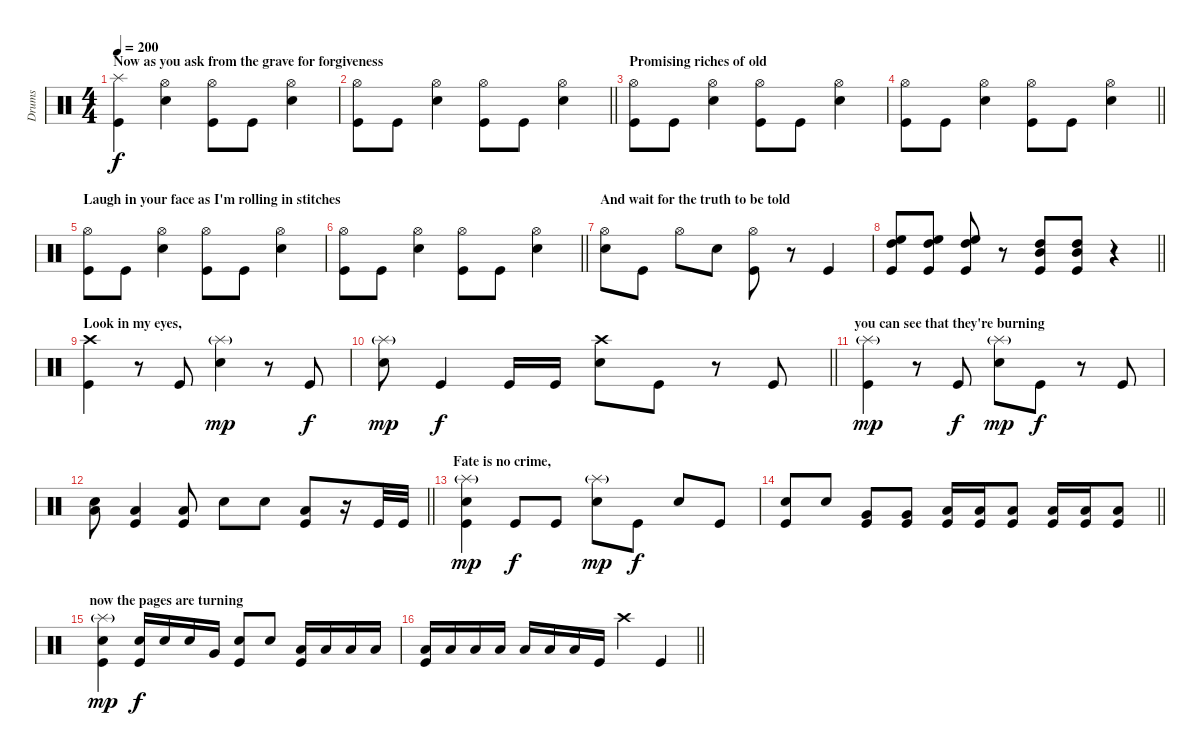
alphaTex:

\track ("Drums" "Drums") {instrument percussion}
\staff {score}
\articulation defaults
\ts (4 4)
\section ("" "Now as you ask from the grave for forgiveness")
\tempo 200
\clef neutral
\ks c
("Splash (hit)" "Kick (hit)").4{dy f} ("Hi-Hat (open)" "Snare (hit) 2").4 ("Hi-Hat (open)" "Kick (hit)").8 "Kick (hit)".8 ("Hi-Hat (open)" "Snare (hit) 2").4 |
\barLineRight lightlight
("Hi-Hat (open)" "Kick (hit)").8 "Kick (hit)".8 ("Hi-Hat (open)" "Snare (hit) 2").4 ("Hi-Hat (open)" "Kick (hit)").8 "Kick (hit)".8 ("Hi-Hat (open)" "Snare (hit) 2").4 |
\section ("" "Promising riches of old")
("Hi-Hat (open)" "Kick (hit)").8 "Kick (hit)".8 ("Hi-Hat (open)" "Snare (hit) 2").4 ("Hi-Hat (open)" "Kick (hit)").8 "Kick (hit)".8 ("Hi-Hat (open)" "Snare (hit) 2").4 |
\barLineRight lightlight
("Hi-Hat (open)" "Kick (hit)").8 "Kick (hit)".8 ("Hi-Hat (open)" "Snare (hit) 2").4 ("Hi-Hat (open)" "Kick (hit)").8 "Kick (hit)".8 ("Hi-Hat (open)" "Snare (hit) 2").4 |
\section ("" "Laugh in your face as I'm rolling in stitches")
("Hi-Hat (open)" "Kick (hit)").8 "Kick (hit)".8 ("Hi-Hat (open)" "Snare (hit) 2").4 ("Hi-Hat (open)" "Kick (hit)").8 "Kick (hit)".8 ("Hi-Hat (open)" "Snare (hit) 2").4 |
\barLineRight lightlight
("Hi-Hat (open)" "Kick (hit)").8 "Kick (hit)".8 ("Hi-Hat (open)" "Snare (hit) 2").4 ("Hi-Hat (open)" "Kick (hit)").8 "Kick (hit)".8 ("Hi-Hat (open)" "Snare (hit) 2").4 |
\section ("" "And wait for the truth to be told")
("Hi-Hat (open)" "Snare (hit) 2").8 "Kick (hit)".8 "Hi-Hat (open)".8 "Snare (hit) 2".8 ("Hi-Hat (open)" "Kick (hit)").8 r.8 "Kick (hit)".4 |
\barLineRight lightlight
("High Floor Tom (hit)" "High Tom (hit)" "Kick (hit)").8 ("High Floor Tom (hit)" "High Tom (hit)" "Kick (hit)").8 ("High Floor Tom (hit)" "High Tom (hit)" "Kick (hit)").8 r.8 ("High Tom (hit)" "Mid Tom (hit)" "Kick (hit)").8 ("High Tom (hit)" "Mid Tom (hit)" "Kick (hit)").8 r.4 |
\section ("" "Look in my eyes,")
("Crash high (hit)" "Kick (hit)").4 r.8 "Kick (hit)".8 ("Splash (hit)"{g} "Snare (hit) 2").4{dy mp} r.8 "Kick (hit)".8{dy f} |
\barLineRight lightlight
("Splash (hit)"{g} "Snare (hit) 2").8{dy mp} "Kick (hit)".4{dy f} "Kick (hit)".16 "Kick (hit)".16 ("Crash high (hit)" "Snare (hit) 2").8 "Kick (hit)".8 r.8 "Kick (hit)".8 |
\section ("" "you can see that they're burning")
("Splash (hit)"{g} "Kick (hit)").4{dy mp} r.8 "Kick (hit)".8{dy f} ("Splash (hit)"{g} "Snare (hit) 2").8{dy mp} "Kick (hit)".8{dy f} r.8 "Kick (hit)".8 |
\barLineRight lightlight
("Snare (hit) 2" "Low Floor Tom (hit)").8 ("Low Floor Tom (hit)" "Kick (hit)").4 ("Low Floor Tom (hit)" "Kick (hit)").8 "Snare (hit) 2".8 "Snare (hit) 2".8 ("Low Floor Tom (hit)" "Kick (hit)").8 r.16 "Kick (hit)".32 "Kick (hit)".32 |
\section ("" "Fate is no crime,")
("Splash (hit)"{g} "Snare (hit) 2" "Kick (hit)").4{dy mp} "Kick (hit)".8{dy f} "Kick (hit)".8 ("Splash (hit)"{g} "Snare (hit) 2").8{dy mp} "Kick (hit)".8{dy f} "Snare (hit) 2".8 "Kick (hit)".8 |
\barLineRight lightlight
("Snare (hit) 2" "Kick (hit)").8 "Snare (hit) 2".8 ("Very Low Tom (hit)" "Kick (hit)").8 ("Very Low Tom (hit)" "Kick (hit)").8 ("Low Floor Tom (hit)" "Kick (hit)").16 ("Low Floor Tom (hit)" "Kick (hit)").16 ("Low Floor Tom (hit)" "Kick (hit)").8 ("Low Floor Tom (hit)" "Kick (hit)").16 ("Low Floor Tom (hit)" "Kick (hit)").16 ("Low Floor Tom (hit)" "Kick (hit)").8 |
\section ("" "now the pages are turning")
("Splash (hit)"{g} "Snare (hit) 2" "Kick (hit)").4{dy mp} ("Snare (hit) 2" "Kick (hit)").16{dy f} "Snare (hit) 2".16 "Snare (hit) 2".16 "Very Low Tom (hit)".16 ("Snare (hit) 2" "Kick (hit)").8 "Snare (hit) 2".8 ("Low Floor Tom (hit)" "Kick (hit)").16 "Low Floor Tom (hit)".16 "Low Floor Tom (hit)".16 "Low Floor Tom (hit)".16 |
\barLineRight lightlight
("Low Floor Tom (hit)" "Kick (hit)").16 "Low Floor Tom (hit)".16 "Low Floor Tom (hit)".16 "Low Floor Tom (hit)".16 "Low Floor Tom (hit)".16 "Low Floor Tom (hit)".16 "Low Floor Tom (hit)".16 "Kick (hit)".16 "Crash high (hit)".4 "Kick (hit)".4
